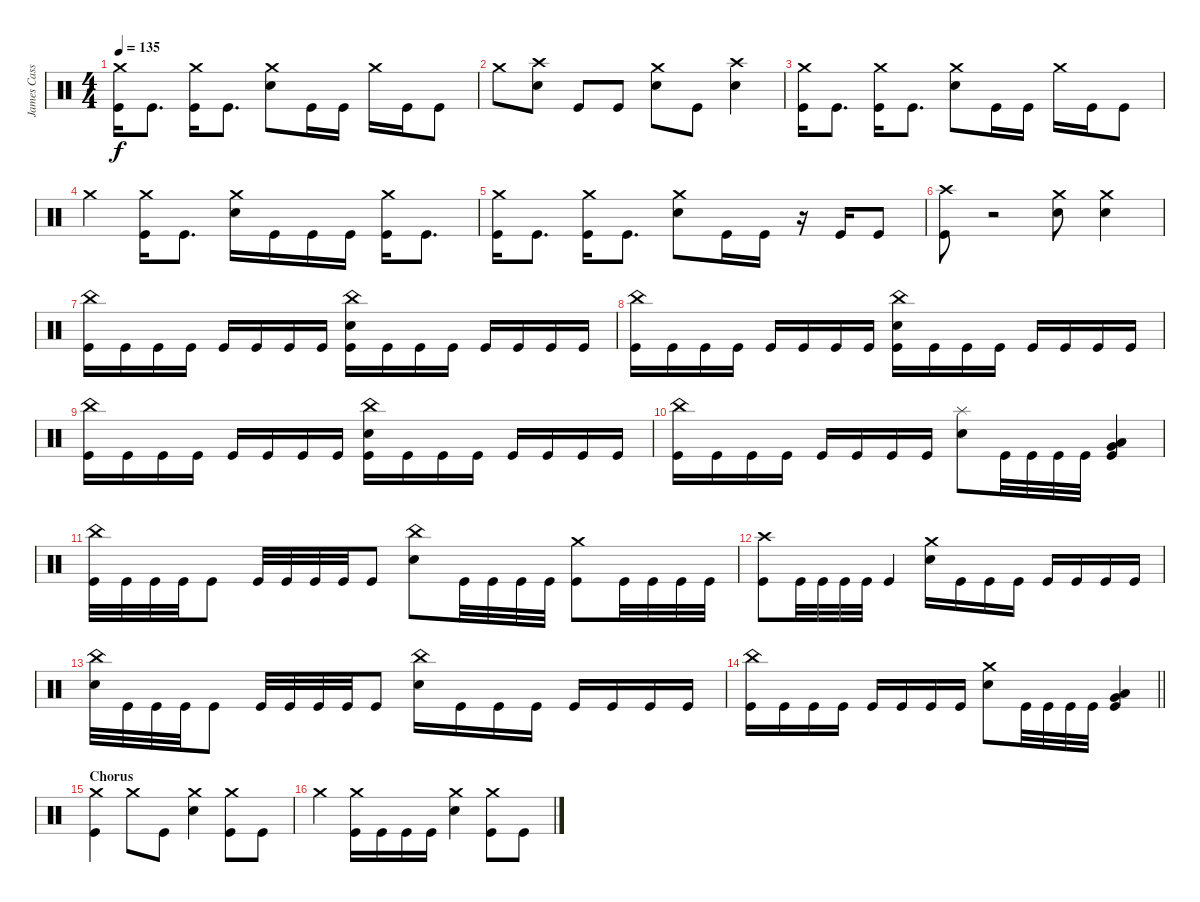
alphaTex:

\track ("James Cassells" "James Cass") {instrument percussion}
\staff {score}
\articulation defaults
\ts (4 4)
\tempo 135
\clef neutral
\ks c
("Crash medium (hit)" "Kick (hit)").16{dy f} "Kick (hit)".8{d} ("Crash medium (hit)" "Kick (hit)").16 "Kick (hit)".8{d} ("Crash medium (hit)" "Snare (hit) 2").8 "Kick (hit)".16 "Kick (hit)".16 "Crash medium (hit)".16 "Kick (hit)".16 "Kick (hit)".8 |
"Crash medium (hit)".8 ("Crash high (hit)" "Snare (hit) 2").8 "Kick (hit)".8 "Kick (hit)".8 ("Crash medium (hit)" "Snare (hit) 2").8 "Kick (hit)".8 ("Crash high (hit)" "Snare (hit) 2").4 |
("Crash medium (hit)" "Kick (hit)").16 "Kick (hit)".8{d} ("Crash medium (hit)" "Kick (hit)").16 "Kick (hit)".8{d} ("Crash medium (hit)" "Snare (hit) 2").8 "Kick (hit)".16 "Kick (hit)".16 "Crash medium (hit)".16 "Kick (hit)".16 "Kick (hit)".8 |
"Crash medium (hit)".4 ("Crash medium (hit)" "Kick (hit)").16 "Kick (hit)".8{d} ("Crash medium (hit)" "Snare (hit) 2").16 "Kick (hit)".16 "Kick (hit)".16 "Kick (hit)".16 ("Crash medium (hit)" "Kick (hit)").16 "Kick (hit)".8{d} |
("Crash medium (hit)" "Kick (hit)").16 "Kick (hit)".8{d} ("Crash medium (hit)" "Kick (hit)").16 "Kick (hit)".8{d} ("Crash medium (hit)" "Snare (hit) 2").8 "Kick (hit)".16 "Kick (hit)".16 r.16 "Kick (hit)".16 "Kick (hit)".8 |
("Crash high (hit)" "Kick (hit)").8 r.2{volume 1} ("Crash medium (hit)" "Snare (hit) 2").8{volume 13} ("Crash medium (hit)" "Snare (hit) 2").4 |
("China (hit)" "Kick (hit)").16 "Kick (hit)".16 "Kick (hit)".16 "Kick (hit)".16 "Kick (hit)".16 "Kick (hit)".16 "Kick (hit)".16 "Kick (hit)".16 ("China (hit)" "Snare (hit) 2" "Kick (hit)").16 "Kick (hit)".16 "Kick (hit)".16 "Kick (hit)".16 "Kick (hit)".16 "Kick (hit)".16 "Kick (hit)".16 "Kick (hit)".16 |
("China (hit)" "Kick (hit)").16 "Kick (hit)".16 "Kick (hit)".16 "Kick (hit)".16 "Kick (hit)".16 "Kick (hit)".16 "Kick (hit)".16 "Kick (hit)".16 ("China (hit)" "Snare (hit) 2" "Kick (hit)").16 "Kick (hit)".16 "Kick (hit)".16 "Kick (hit)".16 "Kick (hit)".16 "Kick (hit)".16 "Kick (hit)".16 "Kick (hit)".16 |
("China (hit)" "Kick (hit)").16 "Kick (hit)".16 "Kick (hit)".16 "Kick (hit)".16 "Kick (hit)".16 "Kick (hit)".16 "Kick (hit)".16 "Kick (hit)".16 ("China (hit)" "Snare (hit) 2" "Kick (hit)").16 "Kick (hit)".16 "Kick (hit)".16 "Kick (hit)".16 "Kick (hit)".16 "Kick (hit)".16 "Kick (hit)".16 "Kick (hit)".16 |
("China (hit)" "Kick (hit)").16 "Kick (hit)".16 "Kick (hit)".16 "Kick (hit)".16 "Kick (hit)".16 "Kick (hit)".16 "Kick (hit)".16 "Kick (hit)".16 ("Splash (hit)" "Snare (hit) 2").8 "Kick (hit)".32 "Kick (hit)".32 "Kick (hit)".32 "Kick (hit)".32 ("Low Tom (hit)" "Very Low Tom (hit)" "Kick (hit)").4 |
("China (hit)" "Kick (hit)").32 "Kick (hit)".32 "Kick (hit)".32 "Kick (hit)".32 "Kick (hit)".8 "Kick (hit)".32 "Kick (hit)".32 "Kick (hit)".32 "Kick (hit)".32 "Kick (hit)".8 ("China (hit)" "Snare (hit) 2").8 "Kick (hit)".32 "Kick (hit)".32 "Kick (hit)".32 "Kick (hit)".32 ("Crash medium (hit)" "Kick (hit)").8 "Kick (hit)".32 "Kick (hit)".32 "Kick (hit)".32 "Kick (hit)".32 |
("Crash high (hit)" "Kick (hit)").8 "Kick (hit)".32 "Kick (hit)".32 "Kick (hit)".32 "Kick (hit)".32 "Kick (hit)".4 ("Crash medium (hit)" "Snare (hit) 2").16 "Kick (hit)".16 "Kick (hit)".16 "Kick (hit)".16 "Kick (hit)".16 "Kick (hit)".16 "Kick (hit)".16 "Kick (hit)".16 |
("China (hit)" "Snare (hit)").32 "Kick (hit)".32 "Kick (hit)".32 "Kick (hit)".32 "Kick (hit)".8 "Kick (hit)".32 "Kick (hit)".32 "Kick (hit)".32 "Kick (hit)".32 "Kick (hit)".8 ("China (hit)" "Snare (hit) 2").16 "Kick (hit)".16 "Kick (hit)".16 "Kick (hit)".16 "Kick (hit)".16 "Kick (hit)".16 "Kick (hit)".16 "Kick (hit)".16 |
\barLineRight lightlight
("China (hit)" "Kick (hit)").16 "Kick (hit)".16 "Kick (hit)".16 "Kick (hit)".16 "Kick (hit)".16 "Kick (hit)".16 "Kick (hit)".16 "Kick (hit)".16 ("Crash medium (hit)" "Snare (hit) 2").8 "Kick (hit)".32 "Kick (hit)".32 "Kick (hit)".32 "Kick (hit)".32 ("Low Tom (hit)" "Very Low Tom (hit)" "Kick (hit)").4 |
\section ("" "Chorus")
("Crash medium (hit)" "Kick (hit)").4 "Crash medium (hit)".8 "Kick (hit)".8 ("Crash medium (hit)" "Snare (hit) 2").4 ("Crash medium (hit)" "Kick (hit)").8 "Kick (hit)".8 |
"Crash medium (hit)".4 ("Crash medium (hit)" "Kick (hit)").16 "Kick (hit)".16 "Kick (hit)".16 "Kick (hit)".16 ("Crash medium (hit)" "Snare (hit) 2").4 ("Crash medium (hit)" "Kick (hit)").8 "Kick (hit)".8
